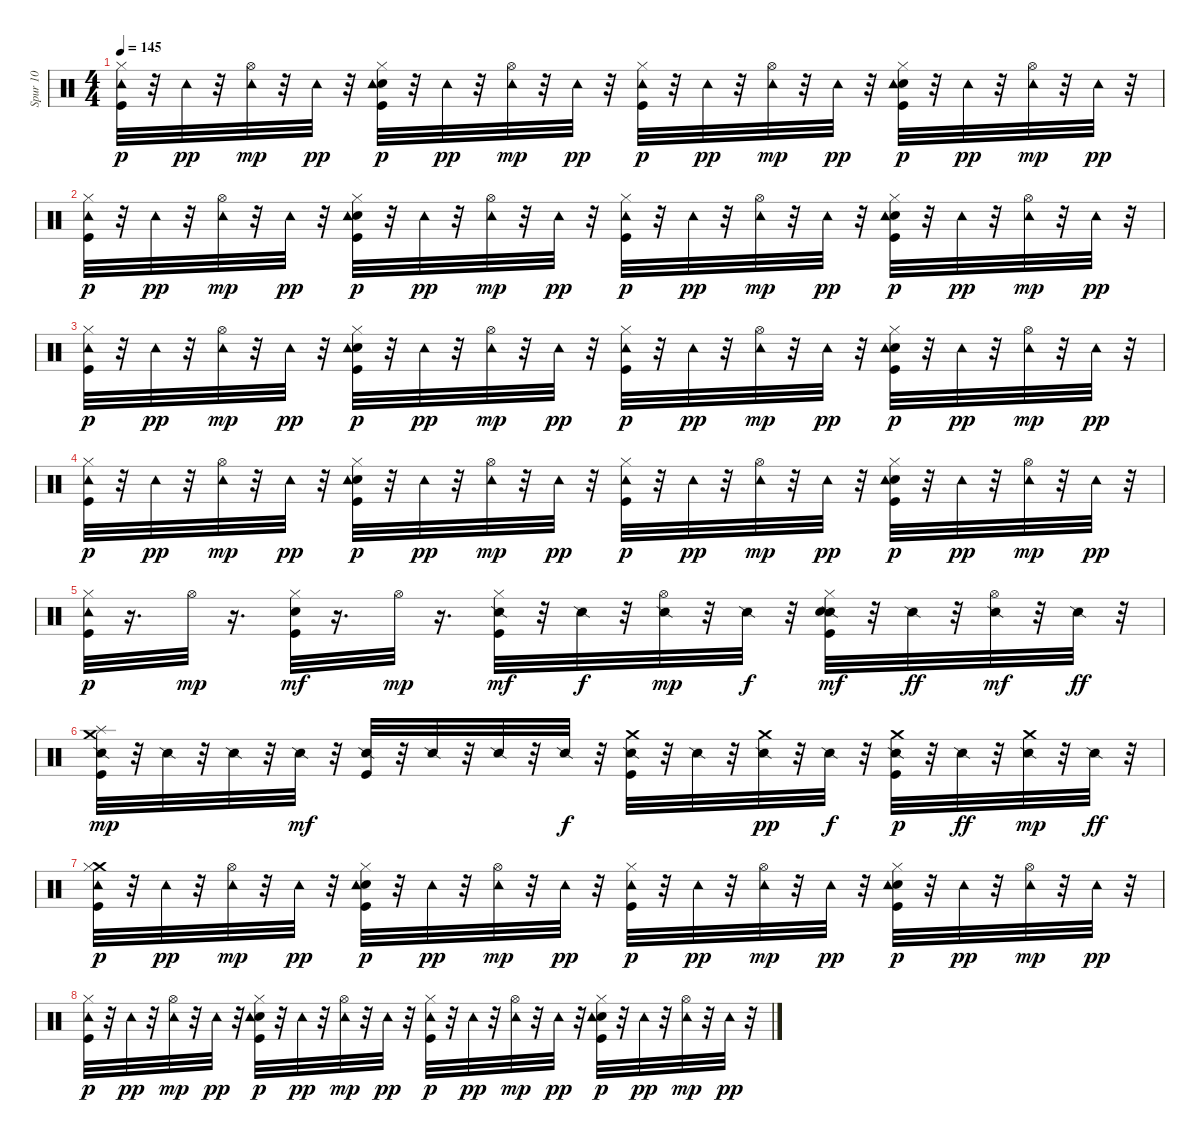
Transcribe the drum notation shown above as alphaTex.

\track ("Spur 10" "Spur 10") {instrument percussion}
\staff {score}
\articulation defaults
\ts (4 4)
\tempo 145
\clef neutral
\ks c
("Kick (hit)" "Hi-Hat (closed)" "Tambourine (hit)").32{dy p} r.32 "Tambourine (hit)".32{dy pp} r.32 ("Hi-Hat (open)" "Tambourine (hit)").32{dy mp} r.32 "Tambourine (hit)".32{dy pp} r.32 ("Kick (hit)" "Snare (hit) 2" "Hi-Hat (closed)" "Tambourine (hit)").32{dy p} r.32 "Tambourine (hit)".32{dy pp} r.32 ("Hi-Hat (open)" "Tambourine (hit)").32{dy mp} r.32 "Tambourine (hit)".32{dy pp} r.32 ("Kick (hit)" "Hi-Hat (closed)" "Tambourine (hit)").32{dy p} r.32 "Tambourine (hit)".32{dy pp} r.32 ("Hi-Hat (open)" "Tambourine (hit)").32{dy mp} r.32 "Tambourine (hit)".32{dy pp} r.32 ("Kick (hit)" "Snare (hit) 2" "Hi-Hat (closed)" "Tambourine (hit)").32{dy p} r.32 "Tambourine (hit)".32{dy pp} r.32 ("Hi-Hat (open)" "Tambourine (hit)").32{dy mp} r.32 "Tambourine (hit)".32{dy pp} r.32 |
("Kick (hit)" "Hi-Hat (closed)" "Tambourine (hit)").32{dy p} r.32 "Tambourine (hit)".32{dy pp} r.32 ("Hi-Hat (open)" "Tambourine (hit)").32{dy mp} r.32 "Tambourine (hit)".32{dy pp} r.32 ("Kick (hit)" "Snare (hit) 2" "Hi-Hat (closed)" "Tambourine (hit)").32{dy p} r.32 "Tambourine (hit)".32{dy pp} r.32 ("Hi-Hat (open)" "Tambourine (hit)").32{dy mp} r.32 "Tambourine (hit)".32{dy pp} r.32 ("Kick (hit)" "Hi-Hat (closed)" "Tambourine (hit)").32{dy p} r.32 "Tambourine (hit)".32{dy pp} r.32 ("Hi-Hat (open)" "Tambourine (hit)").32{dy mp} r.32 "Tambourine (hit)".32{dy pp} r.32 ("Kick (hit)" "Snare (hit) 2" "Hi-Hat (closed)" "Tambourine (hit)").32{dy p} r.32 "Tambourine (hit)".32{dy pp} r.32 ("Hi-Hat (open)" "Tambourine (hit)").32{dy mp} r.32 "Tambourine (hit)".32{dy pp} r.32 |
("Kick (hit)" "Hi-Hat (closed)" "Tambourine (hit)").32{dy p} r.32 "Tambourine (hit)".32{dy pp} r.32 ("Hi-Hat (open)" "Tambourine (hit)").32{dy mp} r.32 "Tambourine (hit)".32{dy pp} r.32 ("Kick (hit)" "Snare (hit) 2" "Hi-Hat (closed)" "Tambourine (hit)").32{dy p} r.32 "Tambourine (hit)".32{dy pp} r.32 ("Hi-Hat (open)" "Tambourine (hit)").32{dy mp} r.32 "Tambourine (hit)".32{dy pp} r.32 ("Kick (hit)" "Hi-Hat (closed)" "Tambourine (hit)").32{dy p} r.32 "Tambourine (hit)".32{dy pp} r.32 ("Hi-Hat (open)" "Tambourine (hit)").32{dy mp} r.32 "Tambourine (hit)".32{dy pp} r.32 ("Kick (hit)" "Snare (hit) 2" "Hi-Hat (closed)" "Tambourine (hit)").32{dy p} r.32 "Tambourine (hit)".32{dy pp} r.32 ("Hi-Hat (open)" "Tambourine (hit)").32{dy mp} r.32 "Tambourine (hit)".32{dy pp} r.32 |
("Kick (hit)" "Hi-Hat (closed)" "Tambourine (hit)").32{dy p} r.32 "Tambourine (hit)".32{dy pp} r.32 ("Hi-Hat (open)" "Tambourine (hit)").32{dy mp} r.32 "Tambourine (hit)".32{dy pp} r.32 ("Kick (hit)" "Snare (hit) 2" "Hi-Hat (closed)" "Tambourine (hit)").32{dy p} r.32 "Tambourine (hit)".32{dy pp} r.32 ("Hi-Hat (open)" "Tambourine (hit)").32{dy mp} r.32 "Tambourine (hit)".32{dy pp} r.32 ("Kick (hit)" "Hi-Hat (closed)" "Tambourine (hit)").32{dy p} r.32 "Tambourine (hit)".32{dy pp} r.32 ("Hi-Hat (open)" "Tambourine (hit)").32{dy mp} r.32 "Tambourine (hit)".32{dy pp} r.32 ("Kick (hit)" "Snare (hit) 2" "Hi-Hat (closed)" "Tambourine (hit)").32{dy p} r.32 "Tambourine (hit)".32{dy pp} r.32 ("Hi-Hat (open)" "Tambourine (hit)").32{dy mp} r.32 "Tambourine (hit)".32{dy pp} r.32 |
("Kick (hit)" "Hi-Hat (closed)" "Tambourine (hit)").32{dy p} r.16{d} "Hi-Hat (open)".32{dy mp} r.16{d} ("Kick (hit)" "Snare (hit) 2" "Hi-Hat (closed)").32{dy mf} r.16{d} "Hi-Hat (open)".32{dy mp} r.16{d} ("Snare (side stick) 2" "Kick (hit)" "Hi-Hat (closed)").32{dy mf} r.32 "Snare (side stick) 2".32{dy f} r.32 ("Snare (side stick) 2" "Hi-Hat (open)").32{dy mp balance 11} r.32 "Snare (side stick) 2".32{dy f} r.32 ("Snare (side stick) 2" "Kick (hit)" "Snare (hit) 2" "Hi-Hat (closed)").32{dy mf balance 8} r.32 "Snare (side stick) 2".32{dy ff} r.32 ("Snare (side stick) 2" "Hi-Hat (open)").32{dy mf balance 4} r.32 "Snare (side stick) 2".32{dy ff} r.32 |
("Crash medium (hit)" "Snare (side stick) 2" "Kick (hit)" "Splash (hit)").32{dy mp balance 8} r.32 "Snare (side stick) 2".32 r.32 "Snare (side stick) 2".32 r.32 "Snare (side stick) 2".32{dy mf} r.32 ("Snare (side stick) 2" "Kick (hit)").32 r.32 "Snare (side stick) 2".32 r.32 "Snare (side stick) 2".32 r.32 "Snare (side stick) 2".32{dy f} r.32 ("Snare (side stick) 2" "Kick (hit)" "Crash medium (hit)").32{balance 10} r.32 "Snare (side stick) 2".32 r.32 ("Snare (side stick) 2" "Crash medium (hit)").32{dy pp balance 14} r.32 "Snare (side stick) 2".32{dy f} r.32 ("Snare (side stick) 2" "Kick (hit)" "Crash medium (hit)").32{dy p balance 7} r.32 "Snare (side stick) 2".32{dy ff} r.32 ("Snare (side stick) 2" "Crash medium (hit)").32{dy mp balance 0} r.32 "Snare (side stick) 2".32{dy ff} r.32 |
("Crash medium (hit)" "Kick (hit)" "Hi-Hat (closed)" "Tambourine (hit)").32{dy p balance 8} r.32 "Tambourine (hit)".32{dy pp} r.32 ("Hi-Hat (open)" "Tambourine (hit)").32{dy mp} r.32 "Tambourine (hit)".32{dy pp} r.32 ("Kick (hit)" "Snare (hit) 2" "Hi-Hat (closed)" "Tambourine (hit)").32{dy p} r.32 "Tambourine (hit)".32{dy pp} r.32 ("Hi-Hat (open)" "Tambourine (hit)").32{dy mp} r.32 "Tambourine (hit)".32{dy pp} r.32 ("Kick (hit)" "Hi-Hat (closed)" "Tambourine (hit)").32{dy p} r.32 "Tambourine (hit)".32{dy pp} r.32 ("Hi-Hat (open)" "Tambourine (hit)").32{dy mp} r.32 "Tambourine (hit)".32{dy pp} r.32 ("Kick (hit)" "Snare (hit) 2" "Hi-Hat (closed)" "Tambourine (hit)").32{dy p} r.32 "Tambourine (hit)".32{dy pp} r.32 ("Hi-Hat (open)" "Tambourine (hit)").32{dy mp} r.32 "Tambourine (hit)".32{dy pp} r.32 |
("Kick (hit)" "Hi-Hat (closed)" "Tambourine (hit)").32{dy p} r.32 "Tambourine (hit)".32{dy pp} r.32 ("Hi-Hat (open)" "Tambourine (hit)").32{dy mp} r.32 "Tambourine (hit)".32{dy pp} r.32 ("Kick (hit)" "Snare (hit) 2" "Hi-Hat (closed)" "Tambourine (hit)").32{dy p} r.32 "Tambourine (hit)".32{dy pp} r.32 ("Hi-Hat (open)" "Tambourine (hit)").32{dy mp} r.32 "Tambourine (hit)".32{dy pp} r.32 ("Kick (hit)" "Hi-Hat (closed)" "Tambourine (hit)").32{dy p} r.32 "Tambourine (hit)".32{dy pp} r.32 ("Hi-Hat (open)" "Tambourine (hit)").32{dy mp} r.32 "Tambourine (hit)".32{dy pp} r.32 ("Kick (hit)" "Snare (hit) 2" "Hi-Hat (closed)" "Tambourine (hit)").32{dy p} r.32 "Tambourine (hit)".32{dy pp} r.32 ("Hi-Hat (open)" "Tambourine (hit)").32{dy mp} r.32 "Tambourine (hit)".32{dy pp} r.32
